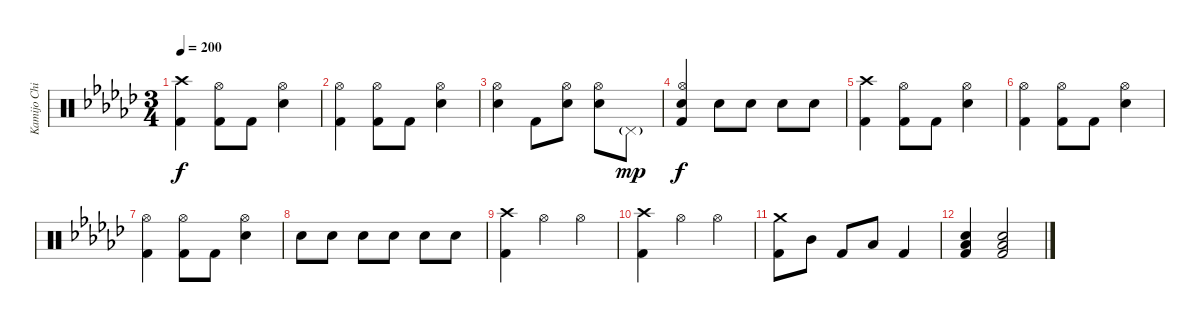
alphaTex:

\track ("Kamijo Chihiro" "Kamijo Chi") {instrument percussion}
\staff {score}
\articulation defaults
\ts (3 4)
\tempo 200
\clef neutral
\ks ebminor
("Crash high (hit)" "Kick (hit) 2").4{dy f} ("Hi-Hat (open)" "Kick (hit) 2").8 "Kick (hit) 2".8 ("Hi-Hat (open)" "Snare (hit) 2").4 |
("Hi-Hat (open)" "Kick (hit) 2").4 ("Hi-Hat (open)" "Kick (hit) 2").8 "Kick (hit) 2".8 ("Hi-Hat (open)" "Snare (hit) 2").4 |
("Hi-Hat (open)" "Snare (hit) 2").4 "Kick (hit) 2".8 ("Hi-Hat (open)" "Snare (hit) 2").8 ("Hi-Hat (open)" "Snare (hit) 2").8 "Pedal Hi-Hat (hit)"{g}.8{dy mp} |
("Hi-Hat (open)" "Snare (hit) 2" "Kick (hit) 2").4{dy f} "Snare (hit) 2".8 "Snare (hit) 2".8 "Snare (hit) 2".8 "Snare (hit) 2".8 |
("Crash high (hit)" "Kick (hit) 2").4 ("Hi-Hat (open)" "Kick (hit) 2").8 "Kick (hit) 2".8 ("Hi-Hat (open)" "Snare (hit) 2").4 |
("Hi-Hat (open)" "Kick (hit) 2").4 ("Hi-Hat (open)" "Kick (hit) 2").8 "Kick (hit) 2".8 ("Hi-Hat (open)" "Snare (hit) 2").4 |
("Hi-Hat (open)" "Kick (hit) 2").4 ("Hi-Hat (open)" "Kick (hit) 2").8 "Kick (hit) 2".8 ("Hi-Hat (open)" "Snare (hit) 2").4 |
"Snare (hit) 2".8 "Snare (hit) 2".8 "Snare (hit) 2".8 "Snare (hit) 2".8 "Snare (hit) 2".8 "Snare (hit) 2".8 |
("Crash high (hit)" "Kick (hit) 2").4 "Hi-Hat (open)".4 "Hi-Hat (open)".4 |
("Crash high (hit)" "Kick (hit) 2").4 "Hi-Hat (open)".4 "Hi-Hat (open)".4 |
("Crash medium (hit)" "Kick (hit) 2").8 "Mid Tom (hit)".8 "Kick (hit) 2".8 "Low Tom (hit)".8 "Kick (hit) 2".4 |
("Snare (hit) 2" "Low Floor Tom (hit)" "Kick (hit) 2").4 ("Snare (hit) 2" "Low Floor Tom (hit)" "Kick (hit) 2").2
